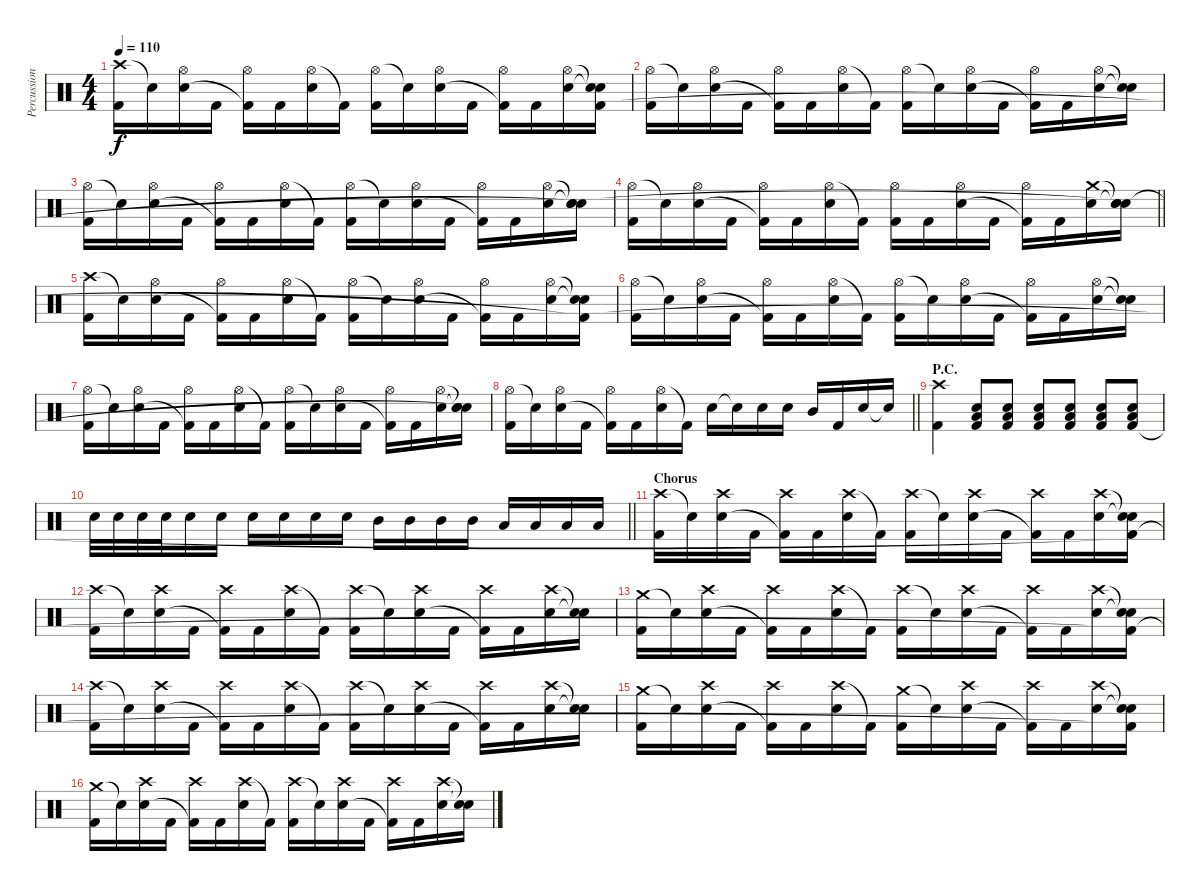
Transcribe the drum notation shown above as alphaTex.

\track ("Percussion" "Percussion") {instrument percussion}
\staff {score}
\articulation defaults
\ts (4 4)
\tempo 110
\clef neutral
\ks c
("Crash high (hit)" "Kick (hit) 2").16{dy f} "Snare (hit)"{t}.16 ("Hi-Hat (open)" "Electric Snare (hit)").16 "Kick (hit) 2".16 ("Hi-Hat (open)" "Kick (hit) 2"{t}).16 "Kick (hit) 2".16 ("Hi-Hat (open)" "Electric Snare (hit)").16 "Kick (hit) 2"{t}.16 ("Hi-Hat (open)" "Kick (hit) 2").16 "Snare (hit)"{t}.16 ("Hi-Hat (open)" "Electric Snare (hit)").16 "Kick (hit) 2".16 ("Hi-Hat (open)" "Kick (hit) 2"{t}).16 "Kick (hit) 2".16 ("Hi-Hat (open)" "Electric Snare (hit)").16 ("Snare (hit)"{t} "Snare (hit)"{t} "Kick (hit) 2"{t}).16 |
("Hi-Hat (open)" "Kick (hit) 2").16 "Snare (hit)"{t}.16 ("Hi-Hat (open)" "Electric Snare (hit)").16 "Kick (hit) 2".16 ("Hi-Hat (open)" "Kick (hit) 2"{t}).16 "Kick (hit) 2".16 ("Hi-Hat (open)" "Electric Snare (hit)").16 "Kick (hit) 2"{t}.16 ("Hi-Hat (open)" "Kick (hit) 2").16 "Snare (hit)"{t}.16 ("Hi-Hat (open)" "Electric Snare (hit)").16 "Kick (hit) 2".16 ("Hi-Hat (open)" "Kick (hit) 2"{t}).16 "Kick (hit) 2".16 ("Hi-Hat (open)" "Electric Snare (hit)").16 ("Snare (hit)"{t} "Snare (hit)"{t}).16 |
("Hi-Hat (open)" "Kick (hit) 2").16 "Snare (hit)"{t}.16 ("Hi-Hat (open)" "Electric Snare (hit)").16 "Kick (hit) 2".16 ("Hi-Hat (open)" "Kick (hit) 2"{t}).16 "Kick (hit) 2".16 ("Hi-Hat (open)" "Electric Snare (hit)").16 "Kick (hit) 2"{t}.16 ("Hi-Hat (open)" "Kick (hit) 2").16 "Snare (hit)"{t}.16 ("Hi-Hat (open)" "Electric Snare (hit)").16 "Kick (hit) 2".16 ("Hi-Hat (open)" "Kick (hit) 2"{t}).16 "Kick (hit) 2".16 ("Hi-Hat (open)" "Electric Snare (hit)").16 ("Snare (hit)"{t} "Snare (hit)"{t} "Snare (hit)"{t}).16 |
\barLineRight lightlight
("Hi-Hat (open)" "Kick (hit) 2").16 "Snare (hit)"{t}.16 ("Hi-Hat (open)" "Electric Snare (hit)").16 "Kick (hit) 2".16 ("Hi-Hat (open)" "Kick (hit) 2"{t}).16 "Kick (hit) 2".16 ("Hi-Hat (open)" "Electric Snare (hit)").16 "Kick (hit) 2"{t}.16 ("Hi-Hat (open)" "Kick (hit) 2").16 "Kick (hit) 2".16 ("Hi-Hat (open)" "Electric Snare (hit)").16 "Kick (hit) 2".16 ("Hi-Hat (open)" "Kick (hit) 2"{t}).16 "Kick (hit) 2".16 ("Crash medium (hit)" "Electric Snare (hit)").16 ("Snare (hit)"{t} "Snare (hit)"{t} "Snare (hit)"{t}).16 |
("Crash high (hit)" "Kick (hit) 2").16 "Snare (hit)"{t}.16 ("Hi-Hat (open)" "Electric Snare (hit)").16 "Kick (hit) 2".16 ("Hi-Hat (open)" "Kick (hit) 2"{t}).16 "Kick (hit) 2".16 ("Hi-Hat (open)" "Electric Snare (hit)").16 "Kick (hit) 2"{t}.16 ("Hi-Hat (open)" "Kick (hit) 2").16 "Snare (hit)"{t}.16 ("Hi-Hat (open)" "Electric Snare (hit)").16 "Kick (hit) 2".16 ("Hi-Hat (open)" "Kick (hit) 2"{t}).16 "Kick (hit) 2".16 ("Hi-Hat (open)" "Electric Snare (hit)").16 ("Snare (hit)"{t} "Snare (hit)"{t} "Kick (hit) 2"{t}).16 |
("Hi-Hat (open)" "Kick (hit) 2").16 "Snare (hit)"{t}.16 ("Hi-Hat (open)" "Electric Snare (hit)").16 "Kick (hit) 2".16 ("Hi-Hat (open)" "Kick (hit) 2"{t}).16 "Kick (hit) 2".16 ("Hi-Hat (open)" "Electric Snare (hit)").16 "Kick (hit) 2"{t}.16 ("Hi-Hat (open)" "Kick (hit) 2").16 "Snare (hit)"{t}.16 ("Hi-Hat (open)" "Electric Snare (hit)").16 "Kick (hit) 2".16 ("Hi-Hat (open)" "Kick (hit) 2"{t}).16 "Kick (hit) 2".16 ("Hi-Hat (open)" "Electric Snare (hit)").16 ("Snare (hit)"{t} "Snare (hit)"{t}).16 |
("Hi-Hat (open)" "Kick (hit) 2").16 "Snare (hit)"{t}.16 ("Hi-Hat (open)" "Electric Snare (hit)").16 "Kick (hit) 2".16 ("Hi-Hat (open)" "Kick (hit) 2"{t}).16 "Kick (hit) 2".16 ("Hi-Hat (open)" "Electric Snare (hit)").16 "Kick (hit) 2"{t}.16 ("Hi-Hat (open)" "Kick (hit) 2").16 "Snare (hit)"{t}.16 ("Hi-Hat (open)" "Electric Snare (hit)").16 "Kick (hit) 2".16 ("Hi-Hat (open)" "Kick (hit) 2"{t}).16 "Kick (hit) 2".16 ("Hi-Hat (open)" "Electric Snare (hit)").16 ("Snare (hit)"{t} "Snare (hit)"{t} "Snare (hit)"{t}).16 |
\barLineRight lightlight
("Hi-Hat (open)" "Kick (hit) 2").16 "Snare (hit)"{t}.16 ("Hi-Hat (open)" "Electric Snare (hit)").16 "Kick (hit) 2".16 ("Hi-Hat (open)" "Kick (hit) 2"{t}).16 "Kick (hit) 2".16 ("Hi-Hat (open)" "Electric Snare (hit)").16 "Kick (hit) 2"{t}.16 "Electric Snare (hit)".16 "Snare (hit)"{t}.16 "Electric Snare (hit)".16 "Electric Snare (hit)".16 "Mid Tom (hit)".16 "Kick (hit) 2".16 "Electric Snare (hit)".16 "Snare (hit)"{t}.16 |
\section ("" "P.C.")
("Crash high (hit)" "Kick (hit) 2").4 ("Electric Snare (hit)" "Low Tom (hit)" "Kick (hit) 2").8 ("Electric Snare (hit)" "Low Tom (hit)" "Kick (hit) 2").8 ("Electric Snare (hit)" "Low Tom (hit)" "Kick (hit) 2").8 ("Electric Snare (hit)" "Low Tom (hit)" "Kick (hit) 2").8 ("Electric Snare (hit)" "Low Tom (hit)" "Kick (hit) 2").8 ("Electric Snare (hit)" "Low Tom (hit)" "Kick (hit) 2").8 |
\barLineRight lightlight "Electric Snare (hit)".32 "Electric Snare (hit)".32 "Electric Snare (hit)".32 "Electric Snare (hit)".32 "Electric Snare (hit)".16 "Electric Snare (hit)".16 "Electric Snare (hit)".16 "Electric Snare (hit)".16 "Electric Snare (hit)".16 "Electric Snare (hit)".16 "Mid Tom (hit)".16 "Mid Tom (hit)".16 "Mid Tom (hit)".16 "Mid Tom (hit)".16 "Low Tom (hit)".16 "Low Tom (hit)".16 "Low Tom (hit)".16 "Low Tom (hit)".16
|
\section ("" "Chorus")
("Crash high (hit)" "Kick (hit) 2").16 "Snare (hit)"{t}.16 ("Crash high (hit)" "Electric Snare (hit)").16 "Kick (hit) 2".16 ("Crash high (hit)" "Kick (hit) 2"{t}).16 "Kick (hit) 2".16 ("Crash high (hit)" "Electric Snare (hit)").16 "Kick (hit) 2"{t}.16 ("Crash high (hit)" "Kick (hit) 2").16 "Snare (hit)"{t}.16 ("Crash high (hit)" "Electric Snare (hit)").16 "Kick (hit) 2".16 ("Crash high (hit)" "Kick (hit) 2"{t}).16 "Kick (hit) 2".16 ("Crash high (hit)" "Electric Snare (hit)").16 ("Snare (hit)"{t} "Snare (hit)"{t} "Kick (hit) 2"{t}).16 |
("Crash high (hit)" "Kick (hit) 2").16 "Snare (hit)"{t}.16 ("Crash high (hit)" "Electric Snare (hit)").16 "Kick (hit) 2".16 ("Crash high (hit)" "Kick (hit) 2"{t}).16 "Kick (hit) 2".16 ("Crash high (hit)" "Electric Snare (hit)").16 "Kick (hit) 2"{t}.16 ("Crash high (hit)" "Kick (hit) 2").16 "Snare (hit)"{t}.16 ("Crash high (hit)" "Electric Snare (hit)").16 "Kick (hit) 2".16 ("Crash high (hit)" "Kick (hit) 2"{t}).16 "Kick (hit) 2".16 ("Crash high (hit)" "Electric Snare (hit)").16 ("Snare (hit)"{t} "Snare (hit)"{t}).16 |
("Crash medium (hit)" "Kick (hit) 2").16 "Snare (hit)"{t}.16 ("Crash high (hit)" "Electric Snare (hit)").16 "Kick (hit) 2".16 ("Crash high (hit)" "Kick (hit) 2"{t}).16 "Kick (hit) 2".16 ("Crash high (hit)" "Electric Snare (hit)").16 "Kick (hit) 2"{t}.16 ("Crash high (hit)" "Kick (hit) 2").16 "Snare (hit)"{t}.16 ("Crash high (hit)" "Electric Snare (hit)").16 "Kick (hit) 2".16 ("Crash high (hit)" "Kick (hit) 2"{t}).16 "Kick (hit) 2".16 ("Crash high (hit)" "Electric Snare (hit)").16 ("Snare (hit)"{t} "Snare (hit)"{t} "Kick (hit) 2"{t}).16 |
("Crash high (hit)" "Kick (hit) 2").16 "Snare (hit)"{t}.16 ("Crash high (hit)" "Electric Snare (hit)").16 "Kick (hit) 2".16 ("Crash high (hit)" "Kick (hit) 2"{t}).16 "Kick (hit) 2".16 ("Crash high (hit)" "Electric Snare (hit)").16 "Kick (hit) 2"{t}.16 ("Crash high (hit)" "Kick (hit) 2").16 "Snare (hit)"{t}.16 ("Crash high (hit)" "Electric Snare (hit)").16 "Kick (hit) 2".16 ("Crash high (hit)" "Kick (hit) 2"{t}).16 "Kick (hit) 2".16 ("Crash high (hit)" "Electric Snare (hit)").16 ("Snare (hit)"{t} "Snare (hit)"{t}).16 |
("Crash medium (hit)" "Kick (hit) 2").16 "Snare (hit)"{t}.16 ("Crash high (hit)" "Electric Snare (hit)").16 "Kick (hit) 2".16 ("Crash high (hit)" "Kick (hit) 2"{t}).16 "Kick (hit) 2".16 ("Crash high (hit)" "Electric Snare (hit)").16 "Kick (hit) 2"{t}.16 ("Crash medium (hit)" "Kick (hit) 2").16 "Snare (hit)"{t}.16 ("Crash high (hit)" "Electric Snare (hit)").16 "Kick (hit) 2".16 ("Crash high (hit)" "Kick (hit) 2"{t}).16 "Kick (hit) 2".16 ("Crash high (hit)" "Electric Snare (hit)").16 ("Snare (hit)"{t} "Snare (hit)"{t} "Kick (hit) 2"{t}).16 |
("Crash medium (hit)" "Kick (hit) 2").16 "Snare (hit)"{t}.16 ("Crash high (hit)" "Electric Snare (hit)").16 "Kick (hit) 2".16 ("Crash high (hit)" "Kick (hit) 2"{t}).16 "Kick (hit) 2".16 ("Crash high (hit)" "Electric Snare (hit)").16 "Kick (hit) 2"{t}.16 ("Crash high (hit)" "Kick (hit) 2").16 "Snare (hit)"{t}.16 ("Crash high (hit)" "Electric Snare (hit)").16 "Kick (hit) 2".16 ("Crash high (hit)" "Kick (hit) 2"{t}).16 "Kick (hit) 2".16 ("Crash high (hit)" "Electric Snare (hit)").16 ("Snare (hit)"{t} "Snare (hit)"{t}).16
